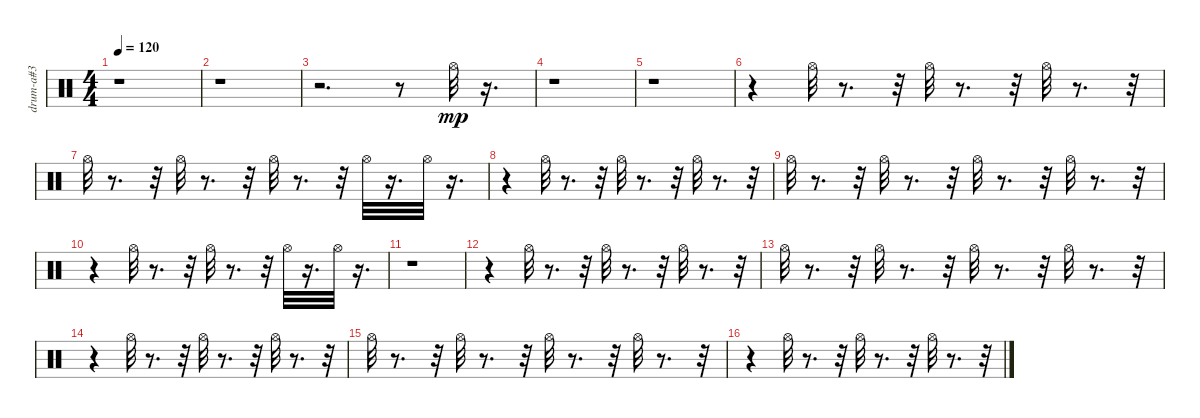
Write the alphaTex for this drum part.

\track ("drum-a#3" "drum-a#3") {instrument percussion}
\staff {score}
\articulation defaults
\ts (4 4)
\tempo 120
\clef neutral
\ks c
r.1{dy mp} |
r.1 |
r.2{d} r.8 "Hi-Hat (open)".32 r.16{d} |
r.1 |
r.1 |
r.4 "Hi-Hat (open)".32 r.8{d} r.32 "Hi-Hat (open)".32 r.8{d} r.32 "Hi-Hat (open)".32 r.8{d} r.32 |
"Hi-Hat (open)".32 r.8{d} r.32 "Hi-Hat (open)".32 r.8{d} r.32 "Hi-Hat (open)".32 r.8{d} r.32 "Hi-Hat (open)".32 r.16{d} "Hi-Hat (open)".32 r.16{d} |
r.4 "Hi-Hat (open)".32 r.8{d} r.32 "Hi-Hat (open)".32 r.8{d} r.32 "Hi-Hat (open)".32 r.8{d} r.32 |
"Hi-Hat (open)".32 r.8{d} r.32 "Hi-Hat (open)".32 r.8{d} r.32 "Hi-Hat (open)".32 r.8{d} r.32 "Hi-Hat (open)".32 r.8{d} r.32 |
r.4 "Hi-Hat (open)".32 r.8{d} r.32 "Hi-Hat (open)".32 r.8{d} r.32 "Hi-Hat (open)".32 r.16{d} "Hi-Hat (open)".32 r.16{d} |
r.1 |
r.4 "Hi-Hat (open)".32 r.8{d} r.32 "Hi-Hat (open)".32 r.8{d} r.32 "Hi-Hat (open)".32 r.8{d} r.32 |
"Hi-Hat (open)".32 r.8{d} r.32 "Hi-Hat (open)".32 r.8{d} r.32 "Hi-Hat (open)".32 r.8{d} r.32 "Hi-Hat (open)".32 r.8{d} r.32 |
r.4 "Hi-Hat (open)".32 r.8{d} r.32 "Hi-Hat (open)".32 r.8{d} r.32 "Hi-Hat (open)".32 r.8{d} r.32 |
"Hi-Hat (open)".32 r.8{d} r.32 "Hi-Hat (open)".32 r.8{d} r.32 "Hi-Hat (open)".32 r.8{d} r.32 "Hi-Hat (open)".32 r.8{d} r.32 |
r.4 "Hi-Hat (open)".32 r.8{d} r.32 "Hi-Hat (open)".32 r.8{d} r.32 "Hi-Hat (open)".32 r.8{d} r.32
